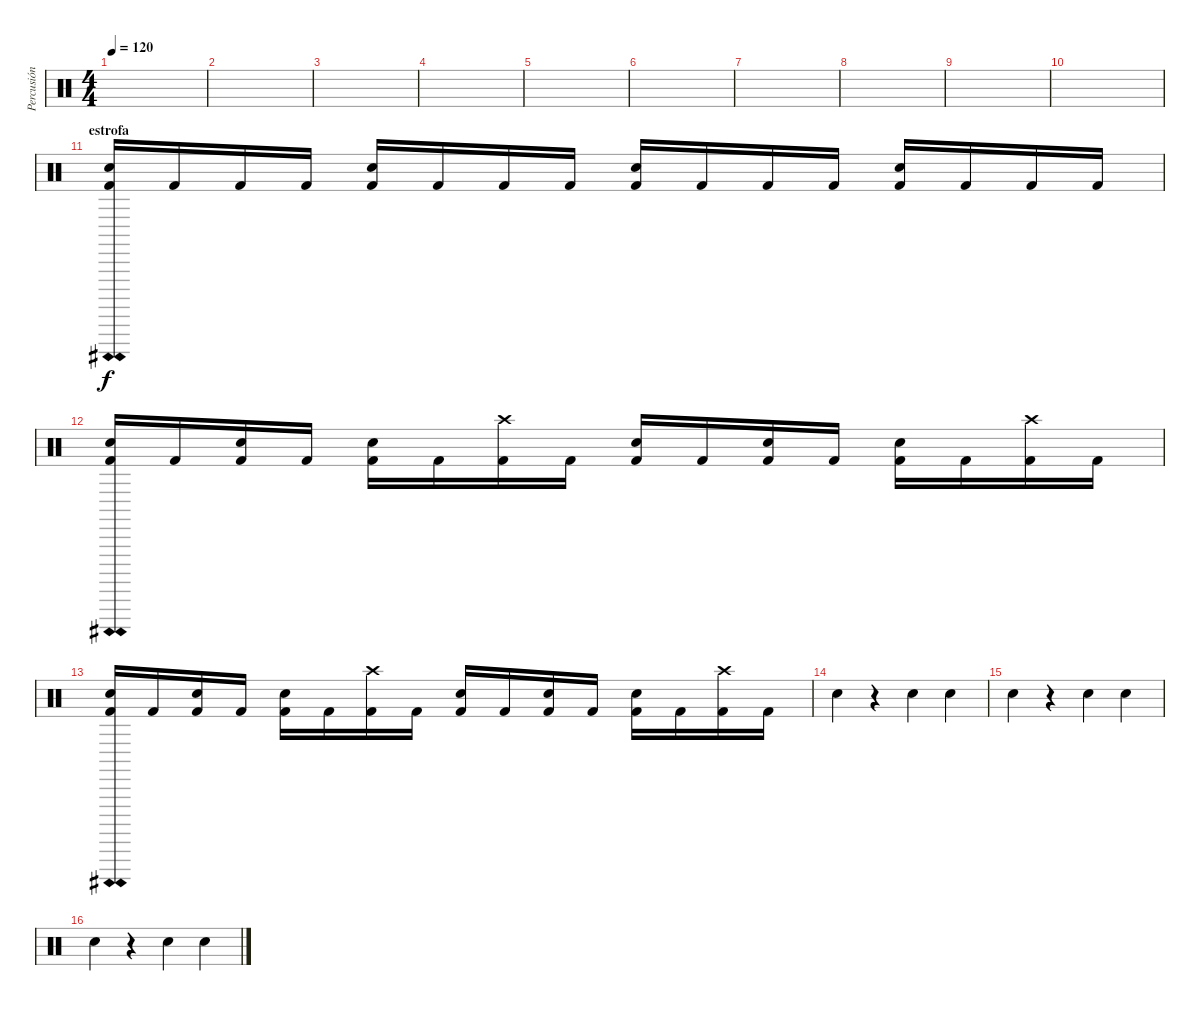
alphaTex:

\track ("Percusión" "Percusión") {instrument percussion}
\staff {score}
\articulation defaults
\ts (4 4)
\tempo 120
\clef neutral
\ks c
|
|
|
|
|
|
|
|
|
|
\section ("" "estrofa")
("Kick (hit) 2"{ah 12} "Electric Snare (hit)"{ah 12}).16 "Kick (hit) 2".16 "Kick (hit) 2".16 "Kick (hit) 2".16 ("Kick (hit) 2" "Electric Snare (hit)").16 "Kick (hit) 2".16 "Kick (hit) 2".16 "Kick (hit) 2".16 ("Kick (hit) 2" "Electric Snare (hit)").16 "Kick (hit) 2".16 "Kick (hit) 2".16 "Kick (hit) 2".16 ("Kick (hit) 2" "Electric Snare (hit)").16 "Kick (hit) 2".16 "Kick (hit) 2".16 "Kick (hit) 2".16 |
("Kick (hit) 2"{ah 12} "Electric Snare (hit)"{ah 12}).16 "Kick (hit) 2".16 ("Kick (hit) 2" "Electric Snare (hit)").16 "Kick (hit) 2".16 ("Kick (hit) 2" "Electric Snare (hit)").16 "Kick (hit) 2".16 ("Crash high (hit)" "Kick (hit) 2").16 "Kick (hit) 2".16 ("Kick (hit) 2" "Electric Snare (hit)").16 "Kick (hit) 2".16 ("Kick (hit) 2" "Electric Snare (hit)").16 "Kick (hit) 2".16 ("Kick (hit) 2" "Electric Snare (hit)").16 "Kick (hit) 2".16 ("Crash high (hit)" "Kick (hit) 2").16 "Kick (hit) 2".16 |
("Kick (hit) 2"{ah 12} "Electric Snare (hit)"{ah 12}).16 "Kick (hit) 2".16 ("Kick (hit) 2" "Electric Snare (hit)").16 "Kick (hit) 2".16 ("Kick (hit) 2" "Electric Snare (hit)").16 "Kick (hit) 2".16 ("Crash high (hit)" "Kick (hit) 2").16 "Kick (hit) 2".16 ("Kick (hit) 2" "Electric Snare (hit)").16 "Kick (hit) 2".16 ("Kick (hit) 2" "Electric Snare (hit)").16 "Kick (hit) 2".16 ("Kick (hit) 2" "Electric Snare (hit)").16 "Kick (hit) 2".16 ("Crash high (hit)" "Kick (hit) 2").16 "Kick (hit) 2".16 |
"Electric Snare (hit)".4 r.4 "Electric Snare (hit)".4 "Electric Snare (hit)".4 |
"Electric Snare (hit)".4 r.4 "Electric Snare (hit)".4 "Electric Snare (hit)".4 |
"Electric Snare (hit)".4 r.4 "Electric Snare (hit)".4 "Electric Snare (hit)".4
